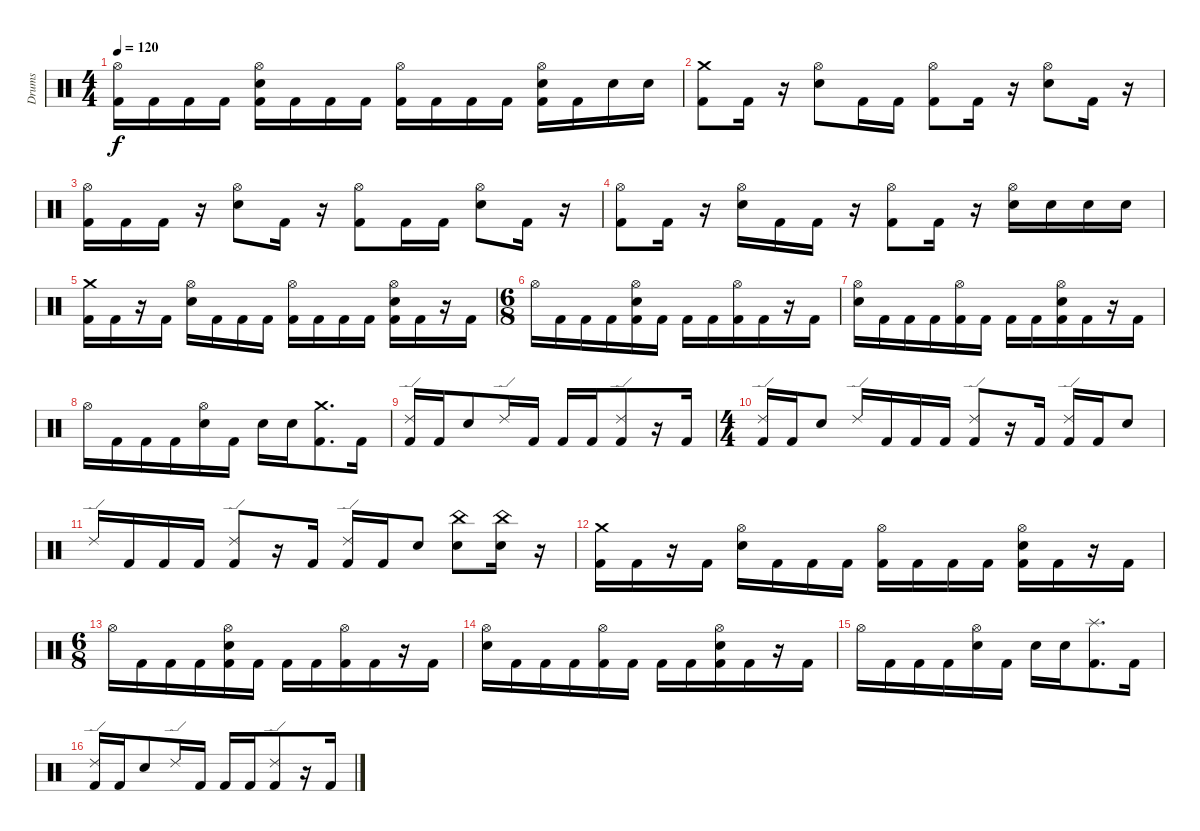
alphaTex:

\track ("Drums" "Drums") {instrument percussion}
\staff {score}
\articulation defaults
\ts (4 4)
\tempo 120
\clef neutral
\ks c
("Hi-Hat (open)" "Kick (hit) 2").16{dy f} "Kick (hit) 2".16 "Kick (hit) 2".16 "Kick (hit) 2".16 ("Hi-Hat (open)" "Electric Snare (hit)" "Kick (hit) 2").16 "Kick (hit) 2".16 "Kick (hit) 2".16 "Kick (hit) 2".16 ("Hi-Hat (open)" "Kick (hit) 2").16 "Kick (hit) 2".16 "Kick (hit) 2".16 "Kick (hit) 2".16 ("Hi-Hat (open)" "Electric Snare (hit)" "Kick (hit) 2").16 "Kick (hit) 2".16 "Electric Snare (hit)".16 "Electric Snare (hit)".16 |
("Crash medium (hit)" "Kick (hit) 2").8 "Kick (hit) 2".16 r.16 ("Hi-Hat (open)" "Electric Snare (hit)").8 "Kick (hit) 2".16 "Kick (hit) 2".16 ("Kick (hit) 2" "Hi-Hat (open)").8 "Kick (hit) 2".16 r.16 ("Hi-Hat (open)" "Electric Snare (hit)").8 "Kick (hit) 2".16 r.16 |
("Hi-Hat (open)" "Kick (hit) 2").16 "Kick (hit) 2".16 "Kick (hit) 2".16 r.16 ("Hi-Hat (open)" "Electric Snare (hit)").8 "Kick (hit) 2".16 r.16 ("Hi-Hat (open)" "Kick (hit) 2").8 "Kick (hit) 2".16 "Kick (hit) 2".16 ("Hi-Hat (open)" "Electric Snare (hit)").8 "Kick (hit) 2".16 r.16 |
("Hi-Hat (open)" "Kick (hit) 2").8 "Kick (hit) 2".16 r.16 ("Hi-Hat (open)" "Electric Snare (hit)").16 "Kick (hit) 2".16 "Kick (hit) 2".16 r.16 ("Hi-Hat (open)" "Kick (hit) 2").8 "Kick (hit) 2".16 r.16 ("Hi-Hat (open)" "Electric Snare (hit)").16 "Electric Snare (hit)".16 "Electric Snare (hit)".16 "Electric Snare (hit)".16 |
("Crash medium (hit)" "Kick (hit) 2").16 "Kick (hit) 2".16 r.16 "Kick (hit) 2".16 ("Electric Snare (hit)" "Hi-Hat (open)").16 "Kick (hit) 2".16 "Kick (hit) 2".16 "Kick (hit) 2".16 ("Hi-Hat (open)" "Kick (hit) 2").16 "Kick (hit) 2".16 "Kick (hit) 2".16 "Kick (hit) 2".16 ("Electric Snare (hit)" "Hi-Hat (open)" "Kick (hit) 2").16 "Kick (hit) 2".16 r.16 "Kick (hit) 2".16 |
\ts (6 8)
"Hi-Hat (open)".16 "Kick (hit) 2".16 "Kick (hit) 2".16 "Kick (hit) 2".16 ("Electric Snare (hit)" "Hi-Hat (open)" "Kick (hit) 2").16 "Kick (hit) 2".16 "Kick (hit) 2".16 "Kick (hit) 2".16 ("Hi-Hat (open)" "Kick (hit) 2").16 "Kick (hit) 2".16 r.16 "Kick (hit) 2".16 |
("Electric Snare (hit)" "Hi-Hat (open)").16 "Kick (hit) 2".16 "Kick (hit) 2".16 "Kick (hit) 2".16 ("Hi-Hat (open)" "Kick (hit) 2").16 "Kick (hit) 2".16 "Kick (hit) 2".16 "Kick (hit) 2".16 ("Electric Snare (hit)" "Hi-Hat (open)" "Kick (hit) 2").16 "Kick (hit) 2".16 r.16 "Kick (hit) 2".16 |
"Hi-Hat (open)".16 "Kick (hit) 2".16 "Kick (hit) 2".16 "Kick (hit) 2".16 ("Electric Snare (hit)" "Hi-Hat (open)").16 "Kick (hit) 2".16 "Electric Snare (hit)".16 "Electric Snare (hit)".16 ("Crash medium (hit)" "Kick (hit) 2").8{d} "Kick (hit) 2".16 |
("Ride (edge) 2" "Kick (hit) 2").16 "Kick (hit) 2".16 "Electric Snare (hit)".8 "Ride (edge) 2".16 "Kick (hit) 2".16 "Kick (hit) 2".16 "Kick (hit) 2".16 ("Ride (edge) 2" "Kick (hit) 2").8 r.16 "Kick (hit) 2".16 |
\ts (4 4)
("Ride (edge) 2" "Kick (hit) 2").16 "Kick (hit) 2".16 "Electric Snare (hit)".8 "Ride (edge) 2".16 "Kick (hit) 2".16 "Kick (hit) 2".16 "Kick (hit) 2".16 ("Ride (edge) 2" "Kick (hit) 2").8 r.16 "Kick (hit) 2".16 ("Ride (edge) 2" "Kick (hit) 2").16 "Kick (hit) 2".16 "Electric Snare (hit)".8 |
"Ride (edge) 2".16 "Kick (hit) 2".16 "Kick (hit) 2".16 "Kick (hit) 2".16 ("Ride (edge) 2" "Kick (hit) 2").8 r.16 "Kick (hit) 2".16 ("Ride (edge) 2" "Kick (hit) 2").16 "Kick (hit) 2".16 "Electric Snare (hit)".8 ("Electric Snare (hit)" "China (hit)").8 ("Electric Snare (hit)" "China (hit)").16 r.16 |
("Crash medium (hit)" "Kick (hit) 2").16 "Kick (hit) 2".16 r.16 "Kick (hit) 2".16 ("Electric Snare (hit)" "Hi-Hat (open)").16 "Kick (hit) 2".16 "Kick (hit) 2".16 "Kick (hit) 2".16 ("Hi-Hat (open)" "Kick (hit) 2").16 "Kick (hit) 2".16 "Kick (hit) 2".16 "Kick (hit) 2".16 ("Electric Snare (hit)" "Hi-Hat (open)" "Kick (hit) 2").16 "Kick (hit) 2".16 r.16 "Kick (hit) 2".16 |
\ts (6 8)
"Hi-Hat (open)".16 "Kick (hit) 2".16 "Kick (hit) 2".16 "Kick (hit) 2".16 ("Electric Snare (hit)" "Hi-Hat (open)" "Kick (hit) 2").16 "Kick (hit) 2".16 "Kick (hit) 2".16 "Kick (hit) 2".16 ("Hi-Hat (open)" "Kick (hit) 2").16 "Kick (hit) 2".16 r.16 "Kick (hit) 2".16 |
("Electric Snare (hit)" "Hi-Hat (open)").16 "Kick (hit) 2".16 "Kick (hit) 2".16 "Kick (hit) 2".16 ("Hi-Hat (open)" "Kick (hit) 2").16 "Kick (hit) 2".16 "Kick (hit) 2".16 "Kick (hit) 2".16 ("Electric Snare (hit)" "Hi-Hat (open)" "Kick (hit) 2").16 "Kick (hit) 2".16 r.16 "Kick (hit) 2".16 |
"Hi-Hat (open)".16 "Kick (hit) 2".16 "Kick (hit) 2".16 "Kick (hit) 2".16 ("Electric Snare (hit)" "Hi-Hat (open)").16 "Kick (hit) 2".16 "Electric Snare (hit)".16 "Electric Snare (hit)".16 ("Splash (hit)" "Kick (hit) 2").8{d} "Kick (hit) 2".16 |
("Ride (edge) 2" "Kick (hit) 2").16 "Kick (hit) 2".16 "Electric Snare (hit)".8 "Ride (edge) 2".16 "Kick (hit) 2".16 "Kick (hit) 2".16 "Kick (hit) 2".16 ("Ride (edge) 2" "Kick (hit) 2").8 r.16 "Kick (hit) 2".16
